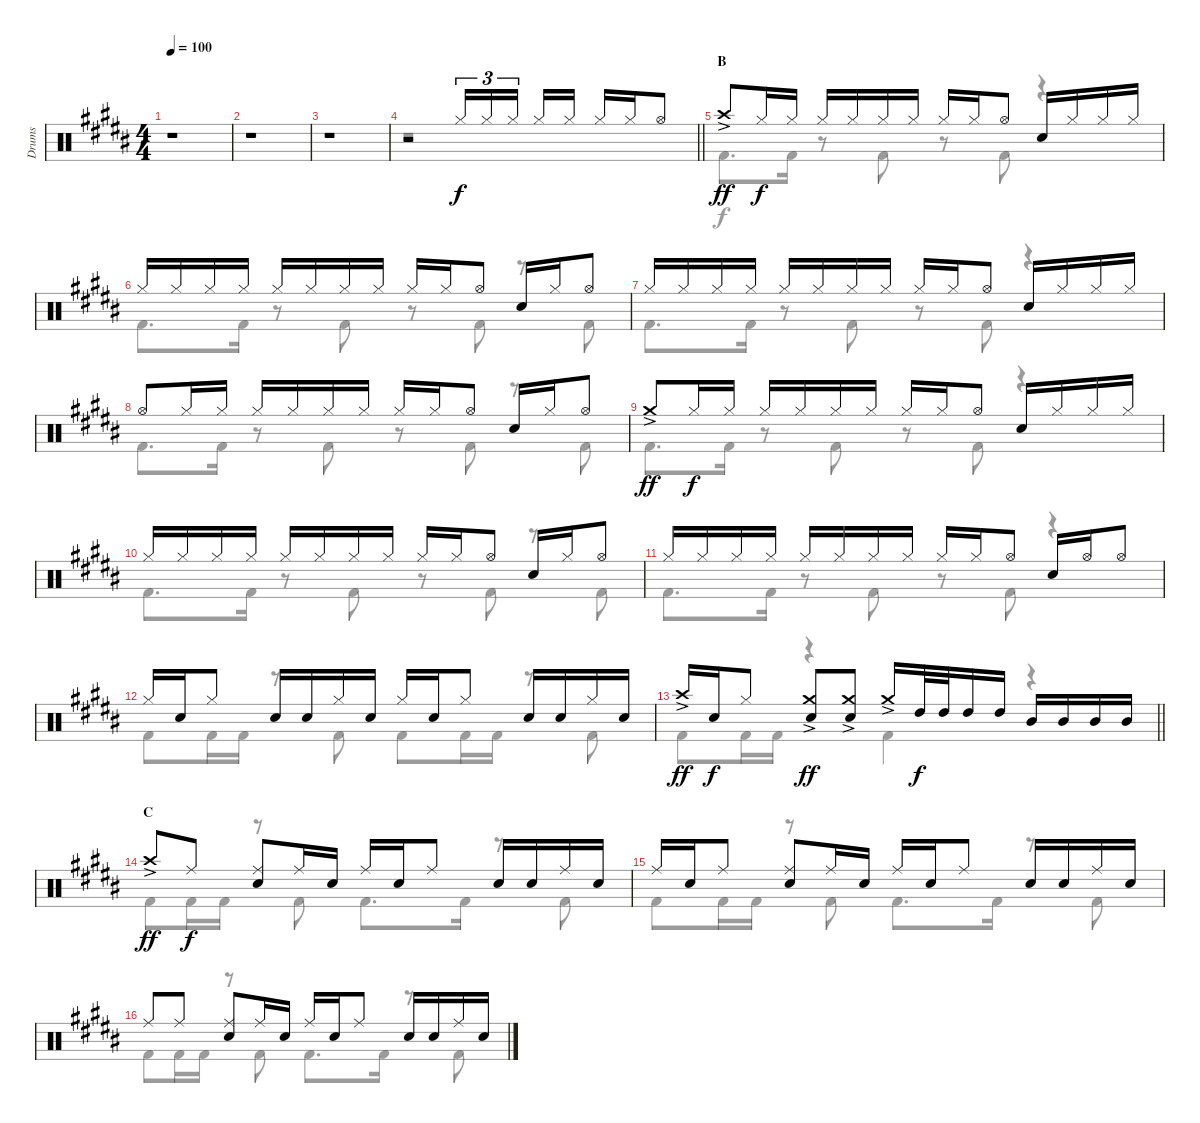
\track ("Drums" "Drums") {instrument percussion}
\staff {score}
\articulation defaults
\voice
\ts (4 4)
\tempo 100
\clef neutral
\ks b
r.1{dy f} |
r.1 |
r.1 |
\barLineRight lightlight
r.2 "Hi-Hat (closed)".16{tu (3 2)} "Hi-Hat (closed)".16{tu (3 2)} "Hi-Hat (closed)".16{tu (3 2) beam splitsecondary} "Hi-Hat (closed)".16 "Hi-Hat (closed)".16 "Hi-Hat (closed)".16 "Hi-Hat (closed)".16 "Hi-Hat (open)".8 |
\section ("" "B")
"Crash high (hit)"{ac}.8{dy ff} "Hi-Hat (closed)".16{dy f} "Hi-Hat (closed)".16 "Hi-Hat (closed)".16 "Hi-Hat (closed)".16 "Hi-Hat (closed)".16 "Hi-Hat (closed)".16 "Hi-Hat (closed)".16 "Hi-Hat (closed)".16 "Hi-Hat (open)".8 "Electric Snare (hit)".16 "Hi-Hat (closed)".16 "Hi-Hat (closed)".16 "Hi-Hat (closed)".16 |
"Hi-Hat (closed)".16 "Hi-Hat (closed)".16 "Hi-Hat (closed)".16 "Hi-Hat (closed)".16 "Hi-Hat (closed)".16 "Hi-Hat (closed)".16 "Hi-Hat (closed)".16 "Hi-Hat (closed)".16 "Hi-Hat (closed)".16 "Hi-Hat (closed)".16 "Hi-Hat (open)".8 "Electric Snare (hit)".16 "Hi-Hat (closed)".16 "Hi-Hat (open)".8 |
"Hi-Hat (closed)".16 "Hi-Hat (closed)".16 "Hi-Hat (closed)".16 "Hi-Hat (closed)".16 "Hi-Hat (closed)".16 "Hi-Hat (closed)".16 "Hi-Hat (closed)".16 "Hi-Hat (closed)".16 "Hi-Hat (closed)".16 "Hi-Hat (closed)".16 "Hi-Hat (open)".8 "Electric Snare (hit)".16 "Hi-Hat (closed)".16 "Hi-Hat (closed)".16 "Hi-Hat (closed)".16 |
"Hi-Hat (open)".8 "Hi-Hat (closed)".16 "Hi-Hat (closed)".16 "Hi-Hat (closed)".16 "Hi-Hat (closed)".16 "Hi-Hat (closed)".16 "Hi-Hat (closed)".16 "Hi-Hat (closed)".16 "Hi-Hat (closed)".16 "Hi-Hat (open)".8 "Electric Snare (hit)".16 "Hi-Hat (closed)".16 "Hi-Hat (open)".8 |
"Crash medium (hit)"{ac}.8{dy ff} "Hi-Hat (closed)".16{dy f} "Hi-Hat (closed)".16 "Hi-Hat (closed)".16 "Hi-Hat (closed)".16 "Hi-Hat (closed)".16 "Hi-Hat (closed)".16 "Hi-Hat (closed)".16 "Hi-Hat (closed)".16 "Hi-Hat (open)".8 "Electric Snare (hit)".16 "Hi-Hat (closed)".16 "Hi-Hat (closed)".16 "Hi-Hat (closed)".16 |
"Hi-Hat (closed)".16 "Hi-Hat (closed)".16 "Hi-Hat (closed)".16 "Hi-Hat (closed)".16 "Hi-Hat (closed)".16 "Hi-Hat (closed)".16 "Hi-Hat (closed)".16 "Hi-Hat (closed)".16 "Hi-Hat (closed)".16 "Hi-Hat (closed)".16 "Hi-Hat (open)".8 "Electric Snare (hit)".16 "Hi-Hat (closed)".16 "Hi-Hat (open)".8 |
"Hi-Hat (closed)".16 "Hi-Hat (closed)".16 "Hi-Hat (closed)".16 "Hi-Hat (closed)".16 "Hi-Hat (closed)".16 "Hi-Hat (closed)".16 "Hi-Hat (closed)".16 "Hi-Hat (closed)".16 "Hi-Hat (closed)".16 "Hi-Hat (closed)".16 "Hi-Hat (open)".8 "Electric Snare (hit)".16 "Hi-Hat (open)".16 "Hi-Hat (open)".8 |
"Hi-Hat (closed)".16 "Electric Snare (hit)".16 "Hi-Hat (closed)".8 "Electric Snare (hit)".16 "Electric Snare (hit)".16 "Hi-Hat (closed)".16 "Electric Snare (hit)".16 "Hi-Hat (closed)".16 "Electric Snare (hit)".16 "Hi-Hat (closed)".8 "Electric Snare (hit)".16 "Electric Snare (hit)".16 "Hi-Hat (closed)".16 "Electric Snare (hit)".16 |
\barLineRight lightlight "Crash high (hit)"{ac}.16{dy ff} "Electric Snare (hit)".16{dy f} "Hi-Hat (closed)".8
("Crash medium (hit)"{ac} "Electric Snare (hit)").8{dy ff} ("Crash medium (hit)"{ac} "Electric Snare (hit)").8 "Crash medium (hit)"{ac}.16 "High Tom (hit)".32{dy f} "High Tom (hit)".32 "High Tom (hit)".16 "High Tom (hit)".16 "Mid Tom (hit)".16 "Mid Tom (hit)".16 "Mid Tom (hit)".16 "Mid Tom (hit)".16 |
\section ("" "C")
"Crash high (hit)"{ac}.8{dy ff} "Ride (middle)".8{dy f} ("Ride (middle)" "Electric Snare (hit)").8 "Ride (middle)".16 "Electric Snare (hit)".16 "Ride (middle)".16 "Electric Snare (hit)".16 "Ride (middle)".8 "Electric Snare (hit)".16 "Electric Snare (hit)".16 "Ride (middle)".16 "Electric Snare (hit)".16 |
"Ride (middle)".16 "Electric Snare (hit)".16 "Ride (middle)".8 ("Ride (middle)" "Electric Snare (hit)").8 "Ride (middle)".16 "Electric Snare (hit)".16 "Ride (middle)".16 "Electric Snare (hit)".16 "Ride (middle)".8 "Electric Snare (hit)".16 "Electric Snare (hit)".16 "Ride (middle)".16 "Electric Snare (hit)".16 |
"Ride (middle)".8 "Ride (middle)".8 ("Ride (middle)" "Electric Snare (hit)").8 "Ride (middle)".16 "Electric Snare (hit)".16 "Ride (middle)".16 "Electric Snare (hit)".16 "Ride (middle)".8 "Electric Snare (hit)".16 "Electric Snare (hit)".16 "Ride (middle)".16 "Electric Snare (hit)".16
\voice
\clef neutral
\ottava regular
\simile none
\ks b
|
|
|
\barLineRight lightlight
r.1 |
"Kick (hit) 2".8{d} "Kick (hit) 2".16 r.8 "Kick (hit) 2".8 r.8 "Kick (hit) 2".8 r.4 |
"Kick (hit) 2".8{d} "Kick (hit) 2".16 r.8 "Kick (hit) 2".8 r.8 "Kick (hit) 2".8 r.8 "Kick (hit) 2".8 |
"Kick (hit) 2".8{d} "Kick (hit) 2".16 r.8 "Kick (hit) 2".8 r.8 "Kick (hit) 2".8 r.4 |
"Kick (hit) 2".8{d} "Kick (hit) 2".16 r.8 "Kick (hit) 2".8 r.8 "Kick (hit) 2".8 r.8 "Kick (hit) 2".8 |
"Kick (hit) 2".8{d} "Kick (hit) 2".16 r.8 "Kick (hit) 2".8 r.8 "Kick (hit) 2".8 r.4 |
"Kick (hit) 2".8{d} "Kick (hit) 2".16 r.8 "Kick (hit) 2".8 r.8 "Kick (hit) 2".8 r.8 "Kick (hit) 2".8 |
"Kick (hit) 2".8{d} "Kick (hit) 2".16 r.8 "Kick (hit) 2".8 r.8 "Kick (hit) 2".8 r.4 |
"Kick (hit) 2".8 "Kick (hit) 2".16 "Kick (hit) 2".16 r.8 "Kick (hit) 2".8 "Kick (hit) 2".8 "Kick (hit) 2".16 "Kick (hit) 2".16 r.8 "Kick (hit) 2".8 |
\barLineRight lightlight "Kick (hit) 2".8 "Kick (hit) 2".16 "Kick (hit) 2".16
r.4 "Kick (hit) 2".4 r.4 |
"Kick (hit) 2".8 "Kick (hit) 2".16 "Kick (hit) 2".16 r.8 "Kick (hit) 2".8 "Kick (hit) 2".8{d} "Kick (hit) 2".16 r.8 "Kick (hit) 2".8 |
"Kick (hit) 2".8 "Kick (hit) 2".16 "Kick (hit) 2".16 r.8 "Kick (hit) 2".8 "Kick (hit) 2".8{d} "Kick (hit) 2".16 r.8 "Kick (hit) 2".8 |
"Kick (hit) 2".8 "Kick (hit) 2".16 "Kick (hit) 2".16 r.8 "Kick (hit) 2".8 "Kick (hit) 2".8{d} "Kick (hit) 2".16 r.8 "Kick (hit) 2".8
